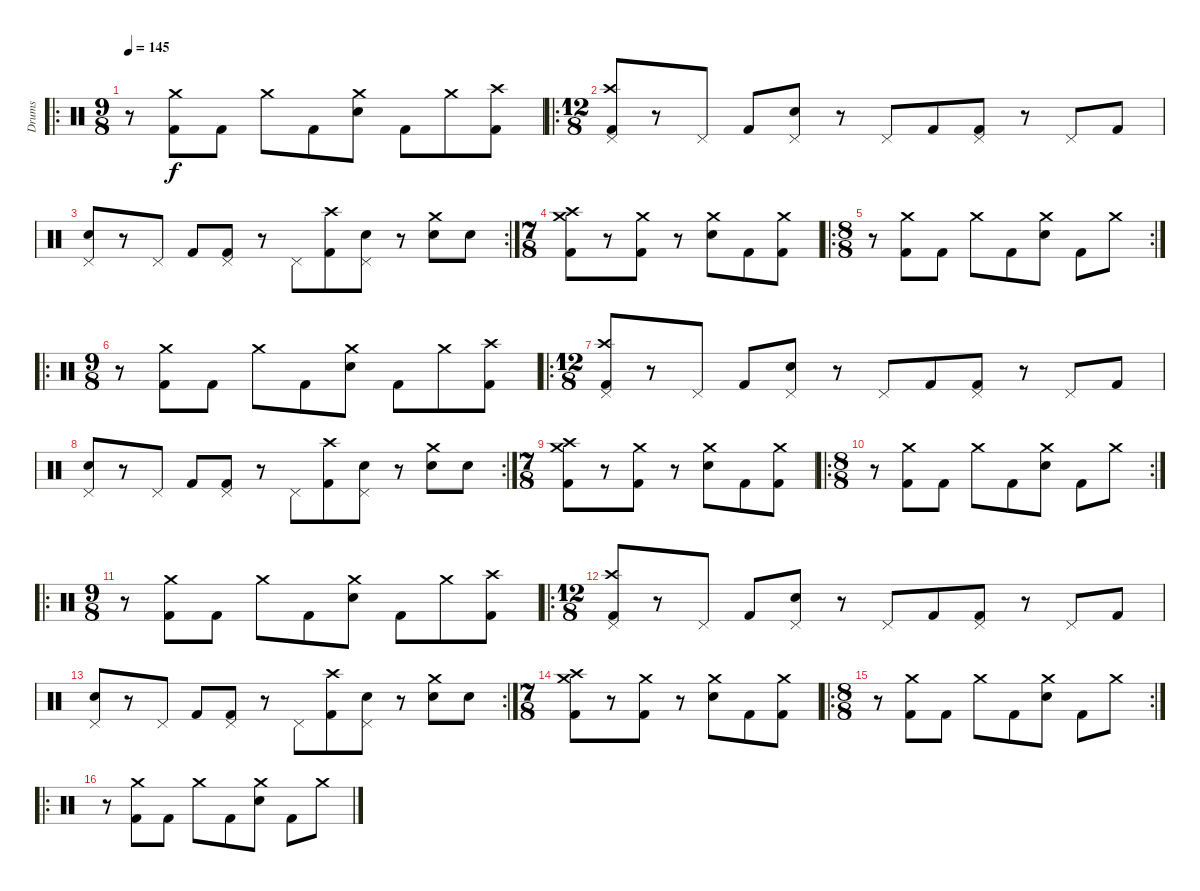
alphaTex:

\track ("Drums" "Drums") {instrument percussion}
\staff {score}
\articulation defaults
\ro
\ts (9 8)
\tempo 145
\clef neutral
\ks c
r.8{dy f} ("Crash medium (hit)" "Kick (hit) 2").8 "Kick (hit) 2".8 "Crash medium (hit)".8 "Kick (hit) 2".8 ("Crash medium (hit)" "Electric Snare (hit)").8 "Kick (hit) 2".8 "Crash medium (hit)".8 ("Crash high (hit)" "Kick (hit) 2").8 |
\ro
\ts (12 8)
("Crash high (hit)" "Pedal Hi-Hat (hit)" "Kick (hit) 2").8 r.8 "Pedal Hi-Hat (hit)".8 "Kick (hit) 2".8 ("Pedal Hi-Hat (hit)" "Electric Snare (hit)").8 r.8 "Pedal Hi-Hat (hit)".8 "Kick (hit) 2".8 ("Pedal Hi-Hat (hit)" "Kick (hit) 2").8 r.8 "Pedal Hi-Hat (hit)".8 "Kick (hit) 2".8 |
\rc 2
("Pedal Hi-Hat (hit)" "Electric Snare (hit)").8 r.8 "Pedal Hi-Hat (hit)".8 "Kick (hit) 2".8 ("Pedal Hi-Hat (hit)" "Kick (hit) 2").8 r.8 "Pedal Hi-Hat (hit)".8 ("Crash high (hit)" "Kick (hit) 2").8 ("Pedal Hi-Hat (hit)" "Electric Snare (hit)").8 r.8 ("Crash medium (hit)" "Electric Snare (hit)").8 "Electric Snare (hit)".8 |
\ts (7 8)
("Crash medium (hit)" "Crash high (hit)" "Kick (hit) 2").8 r.8 ("Crash medium (hit)" "Kick (hit) 2").8 r.8 ("Crash medium (hit)" "Electric Snare (hit)").8 "Kick (hit) 2".8 ("Crash medium (hit)" "Kick (hit) 2").8 |
\ro
\rc 2
\ts (8 8)
r.8 ("Crash medium (hit)" "Kick (hit) 2").8 "Kick (hit) 2".8 "Crash medium (hit)".8 "Kick (hit) 2".8 ("Crash medium (hit)" "Electric Snare (hit)").8 "Kick (hit) 2".8 "Crash medium (hit)".8 |
\ro
\ts (9 8)
r.8 ("Crash medium (hit)" "Kick (hit) 2").8 "Kick (hit) 2".8 "Crash medium (hit)".8 "Kick (hit) 2".8 ("Crash medium (hit)" "Electric Snare (hit)").8 "Kick (hit) 2".8 "Crash medium (hit)".8 ("Crash high (hit)" "Kick (hit) 2").8 |
\ro
\ts (12 8)
("Crash high (hit)" "Pedal Hi-Hat (hit)" "Kick (hit) 2").8 r.8 "Pedal Hi-Hat (hit)".8 "Kick (hit) 2".8 ("Pedal Hi-Hat (hit)" "Electric Snare (hit)").8 r.8 "Pedal Hi-Hat (hit)".8 "Kick (hit) 2".8 ("Pedal Hi-Hat (hit)" "Kick (hit) 2").8 r.8 "Pedal Hi-Hat (hit)".8 "Kick (hit) 2".8 |
\rc 2
("Pedal Hi-Hat (hit)" "Electric Snare (hit)").8 r.8 "Pedal Hi-Hat (hit)".8 "Kick (hit) 2".8 ("Pedal Hi-Hat (hit)" "Kick (hit) 2").8 r.8 "Pedal Hi-Hat (hit)".8 ("Crash high (hit)" "Kick (hit) 2").8 ("Pedal Hi-Hat (hit)" "Electric Snare (hit)").8 r.8 ("Crash medium (hit)" "Electric Snare (hit)").8 "Electric Snare (hit)".8 |
\ts (7 8)
("Crash medium (hit)" "Crash high (hit)" "Kick (hit) 2").8 r.8 ("Crash medium (hit)" "Kick (hit) 2").8 r.8 ("Crash medium (hit)" "Electric Snare (hit)").8 "Kick (hit) 2".8 ("Crash medium (hit)" "Kick (hit) 2").8 |
\ro
\rc 2
\ts (8 8)
r.8 ("Crash medium (hit)" "Kick (hit) 2").8 "Kick (hit) 2".8 "Crash medium (hit)".8 "Kick (hit) 2".8 ("Crash medium (hit)" "Electric Snare (hit)").8 "Kick (hit) 2".8 "Crash medium (hit)".8 |
\ro
\ts (9 8)
r.8 ("Crash medium (hit)" "Kick (hit) 2").8 "Kick (hit) 2".8 "Crash medium (hit)".8 "Kick (hit) 2".8 ("Crash medium (hit)" "Electric Snare (hit)").8 "Kick (hit) 2".8 "Crash medium (hit)".8 ("Crash high (hit)" "Kick (hit) 2").8 |
\ro
\ts (12 8)
("Crash high (hit)" "Pedal Hi-Hat (hit)" "Kick (hit) 2").8 r.8 "Pedal Hi-Hat (hit)".8 "Kick (hit) 2".8 ("Pedal Hi-Hat (hit)" "Electric Snare (hit)").8 r.8 "Pedal Hi-Hat (hit)".8 "Kick (hit) 2".8 ("Pedal Hi-Hat (hit)" "Kick (hit) 2").8 r.8 "Pedal Hi-Hat (hit)".8 "Kick (hit) 2".8 |
\rc 2
("Pedal Hi-Hat (hit)" "Electric Snare (hit)").8 r.8 "Pedal Hi-Hat (hit)".8 "Kick (hit) 2".8 ("Pedal Hi-Hat (hit)" "Kick (hit) 2").8 r.8 "Pedal Hi-Hat (hit)".8 ("Crash high (hit)" "Kick (hit) 2").8 ("Pedal Hi-Hat (hit)" "Electric Snare (hit)").8 r.8 ("Crash medium (hit)" "Electric Snare (hit)").8 "Electric Snare (hit)".8 |
\ts (7 8)
("Crash medium (hit)" "Crash high (hit)" "Kick (hit) 2").8 r.8 ("Crash medium (hit)" "Kick (hit) 2").8 r.8 ("Crash medium (hit)" "Electric Snare (hit)").8 "Kick (hit) 2".8 ("Crash medium (hit)" "Kick (hit) 2").8 |
\ro
\rc 2
\ts (8 8)
r.8 ("Crash medium (hit)" "Kick (hit) 2").8 "Kick (hit) 2".8 "Crash medium (hit)".8 "Kick (hit) 2".8 ("Crash medium (hit)" "Electric Snare (hit)").8 "Kick (hit) 2".8 "Crash medium (hit)".8 |
\ro
r.8 ("Crash medium (hit)" "Kick (hit) 2").8 "Kick (hit) 2".8 "Crash medium (hit)".8 "Kick (hit) 2".8 ("Crash medium (hit)" "Electric Snare (hit)").8 "Kick (hit) 2".8 "Crash medium (hit)".8
